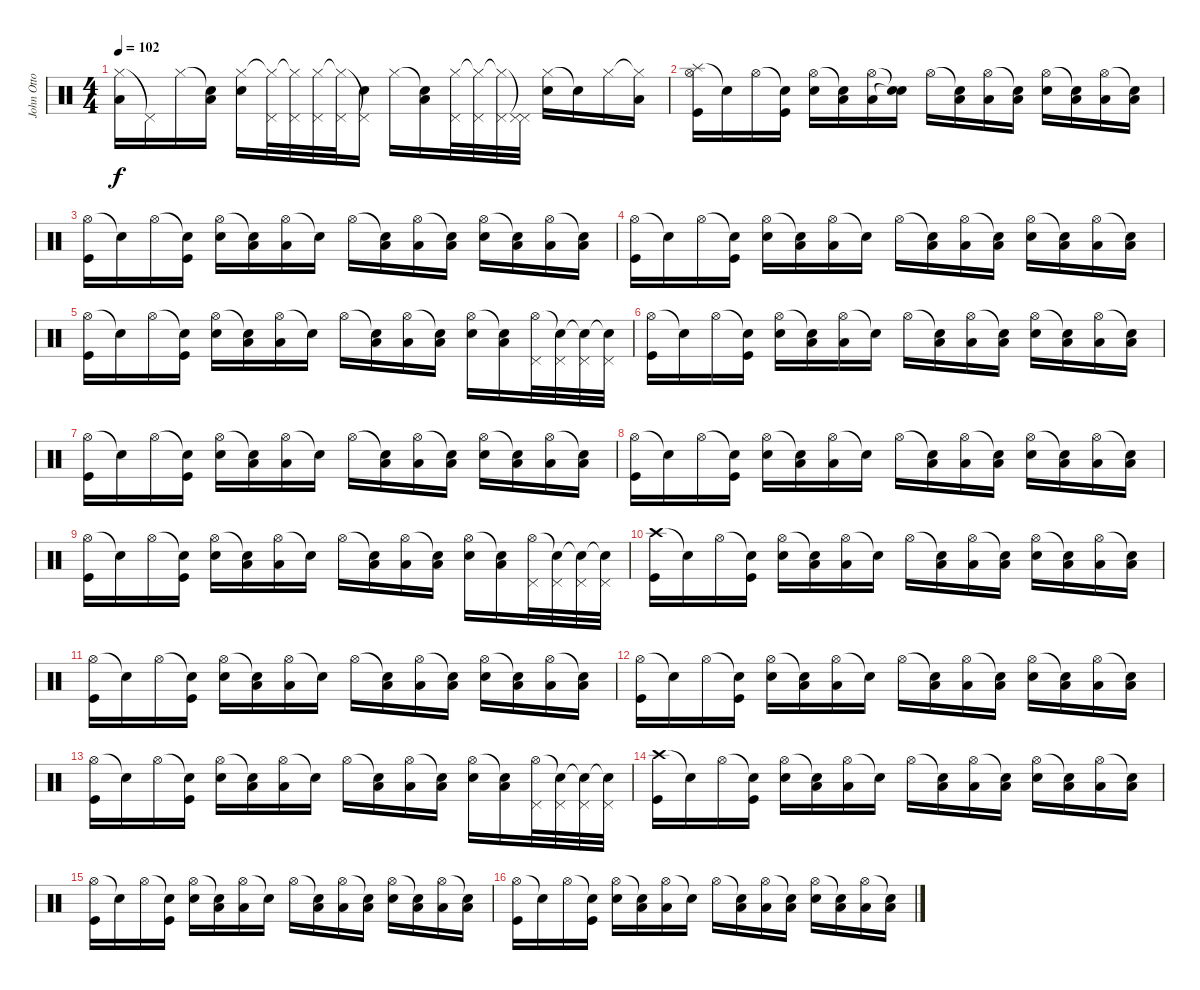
\track ("John Otto (1st Drums)" "John Otto ") {instrument percussion}
\staff {score}
\articulation defaults
\ts (4 4)
\tempo 102
\clef neutral
\ks c
("Hi-Hat (closed)" "Low Tom (hit)").16{dy f} "Pedal Hi-Hat (hit)"{t}.16 "Hi-Hat (closed)".16 ("Snare (hit)"{t} "Low Tom (hit)").16 ("Hi-Hat (closed)" "Snare (hit) 2").16 ("Hi-Hat (closed)"{t} "Pedal Hi-Hat (hit)").32 ("Hi-Hat (closed)"{t} "Pedal Hi-Hat (hit)").32 ("Hi-Hat (closed)" "Pedal Hi-Hat (hit)").32 ("Hi-Hat (closed)"{t} "Pedal Hi-Hat (hit)").32 ("Pedal Hi-Hat (hit)"{t} "Snare (hit) 2").16 "Hi-Hat (closed)".16 ("Snare (hit)"{t} "Low Tom (hit)").16 ("Hi-Hat (closed)" "Pedal Hi-Hat (hit)").32 ("Hi-Hat (closed)"{t} "Pedal Hi-Hat (hit)").32 ("Hi-Hat (closed)"{t} "Pedal Hi-Hat (hit)").32 ("Pedal Hi-Hat (hit)"{t} "Pedal Hi-Hat (hit)").32 ("Hi-Hat (closed)" "Snare (hit) 2").16 "Snare (hit)"{t}.16 "Hi-Hat (closed)".16 ("Hi-Hat (closed)"{t} "Low Tom (hit)").16 |
("Splash (hit)" "Hi-Hat (open)" "Kick (hit)").16 "Snare (hit)"{t}.16 "Hi-Hat (open)".16 ("Snare (hit)"{t} "Kick (hit)").16 ("Hi-Hat (open)" "Snare (hit) 2").16 ("Snare (hit)"{t} "Low Tom (hit)").16 ("Hi-Hat (open)" "Low Tom (hit)").16 ("Snare (hit)"{t} "Snare (hit)"{t}).16 "Hi-Hat (open)".16 ("Snare (hit)"{t} "Low Tom (hit)").16 ("Hi-Hat (open)" "Low Tom (hit)").16 ("Snare (hit)"{t} "Low Tom (hit)").16 ("Hi-Hat (open)" "Snare (hit) 2").16 ("Snare (hit)"{t} "Low Tom (hit)").16 ("Hi-Hat (open)" "Low Tom (hit)").16 ("Snare (hit)"{t} "Low Tom (hit)").16 |
("Hi-Hat (open)" "Kick (hit)").16 "Snare (hit)"{t}.16 "Hi-Hat (open)".16 ("Snare (hit)"{t} "Kick (hit)").16 ("Hi-Hat (open)" "Snare (hit) 2").16 ("Snare (hit)"{t} "Low Tom (hit)").16 ("Hi-Hat (open)" "Low Tom (hit)").16 "Snare (hit)"{t}.16 "Hi-Hat (open)".16 ("Snare (hit)"{t} "Low Tom (hit)").16 ("Hi-Hat (open)" "Low Tom (hit)").16 ("Snare (hit)"{t} "Low Tom (hit)").16 ("Hi-Hat (open)" "Snare (hit) 2").16 ("Snare (hit)"{t} "Low Tom (hit)").16 ("Hi-Hat (open)" "Low Tom (hit)").16 ("Snare (hit)"{t} "Low Tom (hit)").16 |
("Hi-Hat (open)" "Kick (hit)").16 "Snare (hit)"{t}.16 "Hi-Hat (open)".16 ("Snare (hit)"{t} "Kick (hit)").16 ("Hi-Hat (open)" "Snare (hit) 2").16 ("Snare (hit)"{t} "Low Tom (hit)").16 ("Hi-Hat (open)" "Low Tom (hit)").16 "Snare (hit)"{t}.16 "Hi-Hat (open)".16 ("Snare (hit)"{t} "Low Tom (hit)").16 ("Hi-Hat (open)" "Low Tom (hit)").16 ("Snare (hit)"{t} "Low Tom (hit)").16 ("Hi-Hat (open)" "Snare (hit) 2").16 ("Snare (hit)"{t} "Low Tom (hit)").16 ("Hi-Hat (open)" "Low Tom (hit)").16 ("Snare (hit)"{t} "Low Tom (hit)").16 |
("Hi-Hat (open)" "Kick (hit)").16 "Snare (hit)"{t}.16 "Hi-Hat (open)".16 ("Snare (hit)"{t} "Kick (hit)").16 ("Hi-Hat (open)" "Snare (hit) 2").16 ("Snare (hit)"{t} "Low Tom (hit)").16 ("Hi-Hat (open)" "Low Tom (hit)").16 "Snare (hit)"{t}.16 "Hi-Hat (open)".16 ("Snare (hit)"{t} "Low Tom (hit)").16 ("Hi-Hat (open)" "Low Tom (hit)").16 ("Snare (hit)"{t} "Low Tom (hit)").16 ("Hi-Hat (open)" "Snare (hit) 2").16 ("Snare (hit)"{t} "Low Tom (hit)").16 ("Hi-Hat (open)" "Pedal Hi-Hat (hit)").32 ("Snare (hit)"{t} "Pedal Hi-Hat (hit)").32 ("Snare (hit)"{t} "Pedal Hi-Hat (hit)").32 ("Snare (hit)"{t} "Pedal Hi-Hat (hit)").32 |
("Hi-Hat (open)" "Kick (hit)").16 "Snare (hit)"{t}.16 "Hi-Hat (open)".16 ("Snare (hit)"{t} "Kick (hit)").16 ("Hi-Hat (open)" "Snare (hit) 2").16 ("Snare (hit)"{t} "Low Tom (hit)").16 ("Hi-Hat (open)" "Low Tom (hit)").16 "Snare (hit)"{t}.16 "Hi-Hat (open)".16 ("Snare (hit)"{t} "Low Tom (hit)").16 ("Hi-Hat (open)" "Low Tom (hit)").16 ("Snare (hit)"{t} "Low Tom (hit)").16 ("Hi-Hat (open)" "Snare (hit) 2").16 ("Snare (hit)"{t} "Low Tom (hit)").16 ("Hi-Hat (open)" "Low Tom (hit)").16 ("Snare (hit)"{t} "Low Tom (hit)").16 |
("Hi-Hat (open)" "Kick (hit)").16 "Snare (hit)"{t}.16 "Hi-Hat (open)".16 ("Snare (hit)"{t} "Kick (hit)").16 ("Hi-Hat (open)" "Snare (hit) 2").16 ("Snare (hit)"{t} "Low Tom (hit)").16 ("Hi-Hat (open)" "Low Tom (hit)").16 "Snare (hit)"{t}.16 "Hi-Hat (open)".16 ("Snare (hit)"{t} "Low Tom (hit)").16 ("Hi-Hat (open)" "Low Tom (hit)").16 ("Snare (hit)"{t} "Low Tom (hit)").16 ("Hi-Hat (open)" "Snare (hit) 2").16 ("Snare (hit)"{t} "Low Tom (hit)").16 ("Hi-Hat (open)" "Low Tom (hit)").16 ("Snare (hit)"{t} "Low Tom (hit)").16 |
("Hi-Hat (open)" "Kick (hit)").16 "Snare (hit)"{t}.16 "Hi-Hat (open)".16 ("Snare (hit)"{t} "Kick (hit)").16 ("Hi-Hat (open)" "Snare (hit) 2").16 ("Snare (hit)"{t} "Low Tom (hit)").16 ("Hi-Hat (open)" "Low Tom (hit)").16 "Snare (hit)"{t}.16 "Hi-Hat (open)".16 ("Snare (hit)"{t} "Low Tom (hit)").16 ("Hi-Hat (open)" "Low Tom (hit)").16 ("Snare (hit)"{t} "Low Tom (hit)").16 ("Hi-Hat (open)" "Snare (hit) 2").16 ("Snare (hit)"{t} "Low Tom (hit)").16 ("Hi-Hat (open)" "Low Tom (hit)").16 ("Snare (hit)"{t} "Low Tom (hit)").16 |
("Hi-Hat (open)" "Kick (hit)").16 "Snare (hit)"{t}.16 "Hi-Hat (open)".16 ("Snare (hit)"{t} "Kick (hit)").16 ("Hi-Hat (open)" "Snare (hit) 2").16 ("Snare (hit)"{t} "Low Tom (hit)").16 ("Hi-Hat (open)" "Low Tom (hit)").16 "Snare (hit)"{t}.16 "Hi-Hat (open)".16 ("Snare (hit)"{t} "Low Tom (hit)").16 ("Hi-Hat (open)" "Low Tom (hit)").16 ("Snare (hit)"{t} "Low Tom (hit)").16 ("Hi-Hat (open)" "Snare (hit) 2").16 ("Snare (hit)"{t} "Low Tom (hit)").16 ("Hi-Hat (open)" "Pedal Hi-Hat (hit)").32 ("Snare (hit)"{t} "Pedal Hi-Hat (hit)").32 ("Snare (hit)"{t} "Pedal Hi-Hat (hit)").32 ("Snare (hit)"{t} "Pedal Hi-Hat (hit)").32 |
("Crash high (hit)" "Kick (hit)").16 "Snare (hit)"{t}.16 "Hi-Hat (open)".16 ("Snare (hit)"{t} "Kick (hit)").16 ("Hi-Hat (open)" "Snare (hit) 2").16 ("Snare (hit)"{t} "Low Tom (hit)").16 ("Hi-Hat (open)" "Low Tom (hit)").16 "Snare (hit)"{t}.16 "Hi-Hat (open)".16 ("Snare (hit)"{t} "Low Tom (hit)").16 ("Hi-Hat (open)" "Low Tom (hit)").16 ("Snare (hit)"{t} "Low Tom (hit)").16 ("Hi-Hat (open)" "Snare (hit) 2").16 ("Snare (hit)"{t} "Low Tom (hit)").16 ("Hi-Hat (open)" "Low Tom (hit)").16 ("Snare (hit)"{t} "Low Tom (hit)").16 |
("Hi-Hat (open)" "Kick (hit)").16 "Snare (hit)"{t}.16 "Hi-Hat (open)".16 ("Snare (hit)"{t} "Kick (hit)").16 ("Hi-Hat (open)" "Snare (hit) 2").16 ("Snare (hit)"{t} "Low Tom (hit)").16 ("Hi-Hat (open)" "Low Tom (hit)").16 "Snare (hit)"{t}.16 "Hi-Hat (open)".16 ("Snare (hit)"{t} "Low Tom (hit)").16 ("Hi-Hat (open)" "Low Tom (hit)").16 ("Snare (hit)"{t} "Low Tom (hit)").16 ("Hi-Hat (open)" "Snare (hit) 2").16 ("Snare (hit)"{t} "Low Tom (hit)").16 ("Hi-Hat (open)" "Low Tom (hit)").16 ("Snare (hit)"{t} "Low Tom (hit)").16 |
("Hi-Hat (open)" "Kick (hit)").16 "Snare (hit)"{t}.16 "Hi-Hat (open)".16 ("Snare (hit)"{t} "Kick (hit)").16 ("Hi-Hat (open)" "Snare (hit) 2").16 ("Snare (hit)"{t} "Low Tom (hit)").16 ("Hi-Hat (open)" "Low Tom (hit)").16 "Snare (hit)"{t}.16 "Hi-Hat (open)".16 ("Snare (hit)"{t} "Low Tom (hit)").16 ("Hi-Hat (open)" "Low Tom (hit)").16 ("Snare (hit)"{t} "Low Tom (hit)").16 ("Hi-Hat (open)" "Snare (hit) 2").16 ("Snare (hit)"{t} "Low Tom (hit)").16 ("Hi-Hat (open)" "Low Tom (hit)").16 ("Snare (hit)"{t} "Low Tom (hit)").16 |
("Hi-Hat (open)" "Kick (hit)").16 "Snare (hit)"{t}.16 "Hi-Hat (open)".16 ("Snare (hit)"{t} "Kick (hit)").16 ("Hi-Hat (open)" "Snare (hit) 2").16 ("Snare (hit)"{t} "Low Tom (hit)").16 ("Hi-Hat (open)" "Low Tom (hit)").16 "Snare (hit)"{t}.16 "Hi-Hat (open)".16 ("Snare (hit)"{t} "Low Tom (hit)").16 ("Hi-Hat (open)" "Low Tom (hit)").16 ("Snare (hit)"{t} "Low Tom (hit)").16 ("Hi-Hat (open)" "Snare (hit) 2").16 ("Snare (hit)"{t} "Low Tom (hit)").16 ("Hi-Hat (open)" "Pedal Hi-Hat (hit)").32 ("Snare (hit)"{t} "Pedal Hi-Hat (hit)").32 ("Snare (hit)"{t} "Pedal Hi-Hat (hit)").32 ("Snare (hit)"{t} "Pedal Hi-Hat (hit)").32 |
("Crash high (hit)" "Kick (hit)").16 "Snare (hit)"{t}.16 "Hi-Hat (open)".16 ("Snare (hit)"{t} "Kick (hit)").16 ("Hi-Hat (open)" "Snare (hit) 2").16 ("Snare (hit)"{t} "Low Tom (hit)").16 ("Hi-Hat (open)" "Low Tom (hit)").16 "Snare (hit)"{t}.16 "Hi-Hat (open)".16 ("Snare (hit)"{t} "Low Tom (hit)").16 ("Hi-Hat (open)" "Low Tom (hit)").16 ("Snare (hit)"{t} "Low Tom (hit)").16 ("Hi-Hat (open)" "Snare (hit) 2").16 ("Snare (hit)"{t} "Low Tom (hit)").16 ("Hi-Hat (open)" "Low Tom (hit)").16 ("Snare (hit)"{t} "Low Tom (hit)").16 |
("Hi-Hat (open)" "Kick (hit)").16 "Snare (hit)"{t}.16 "Hi-Hat (open)".16 ("Snare (hit)"{t} "Kick (hit)").16 ("Hi-Hat (open)" "Snare (hit) 2").16 ("Snare (hit)"{t} "Low Tom (hit)").16 ("Hi-Hat (open)" "Low Tom (hit)").16 "Snare (hit)"{t}.16 "Hi-Hat (open)".16 ("Snare (hit)"{t} "Low Tom (hit)").16 ("Hi-Hat (open)" "Low Tom (hit)").16 ("Snare (hit)"{t} "Low Tom (hit)").16 ("Hi-Hat (open)" "Snare (hit) 2").16 ("Snare (hit)"{t} "Low Tom (hit)").16 ("Hi-Hat (open)" "Low Tom (hit)").16 ("Snare (hit)"{t} "Low Tom (hit)").16 |
("Hi-Hat (open)" "Kick (hit)").16 "Snare (hit)"{t}.16 "Hi-Hat (open)".16 ("Snare (hit)"{t} "Kick (hit)").16 ("Hi-Hat (open)" "Snare (hit) 2").16 ("Snare (hit)"{t} "Low Tom (hit)").16 ("Hi-Hat (open)" "Low Tom (hit)").16 "Snare (hit)"{t}.16 "Hi-Hat (open)".16 ("Snare (hit)"{t} "Low Tom (hit)").16 ("Hi-Hat (open)" "Low Tom (hit)").16 ("Snare (hit)"{t} "Low Tom (hit)").16 ("Hi-Hat (open)" "Snare (hit) 2").16 ("Snare (hit)"{t} "Low Tom (hit)").16 ("Hi-Hat (open)" "Low Tom (hit)").16 ("Snare (hit)"{t} "Low Tom (hit)").16
